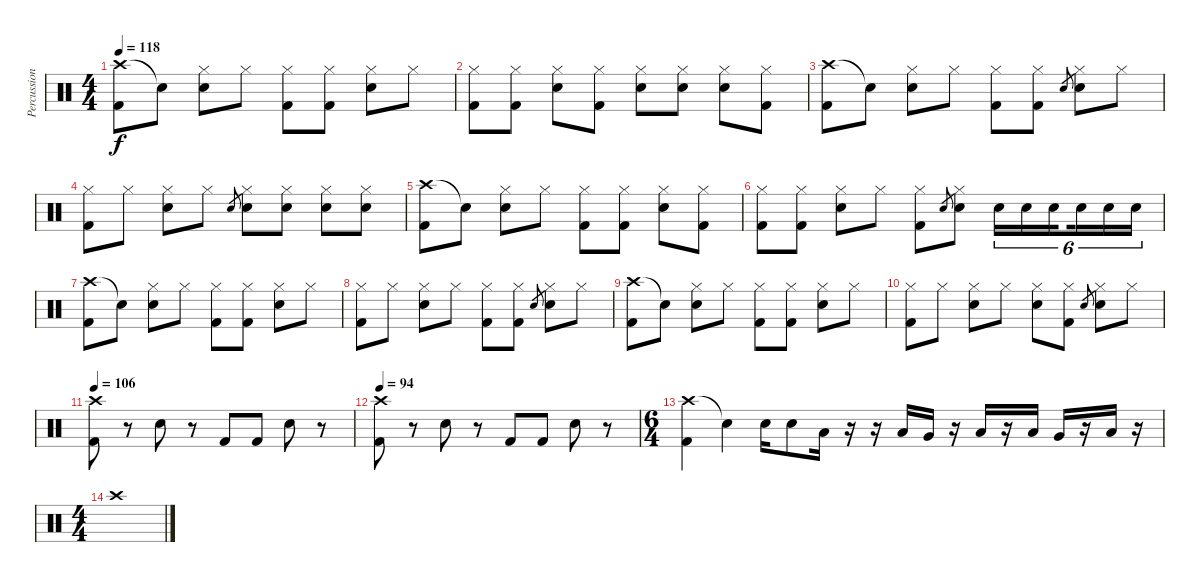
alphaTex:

\track ("Percussion" "Percussion") {instrument percussion}
\staff {score}
\articulation defaults
\ts (4 4)
\tempo 118
\clef neutral
\ks c
("Crash high (hit)" "Kick (hit) 2").8{dy f} "Snare (hit)"{t}.8 ("Hi-Hat (closed)" "Snare (hit) 2").8 "Hi-Hat (closed)".8 ("Hi-Hat (closed)" "Kick (hit) 2").8 ("Hi-Hat (closed)" "Kick (hit) 2").8 ("Hi-Hat (closed)" "Snare (hit) 2").8 "Hi-Hat (closed)".8 |
("Hi-Hat (closed)" "Kick (hit) 2").8 ("Hi-Hat (closed)" "Kick (hit) 2").8 ("Hi-Hat (closed)" "Snare (hit) 2").8 ("Hi-Hat (closed)" "Kick (hit) 2").8 ("Hi-Hat (closed)" "Snare (hit) 2").8 ("Hi-Hat (closed)" "Snare (hit) 2").8 ("Hi-Hat (closed)" "Snare (hit) 2").8 ("Hi-Hat (closed)" "Kick (hit) 2").8 |
("Crash high (hit)" "Kick (hit) 2").8 "Snare (hit)"{t}.8 ("Hi-Hat (closed)" "Snare (hit) 2").8 "Hi-Hat (closed)".8 ("Hi-Hat (closed)" "Kick (hit) 2").8 ("Hi-Hat (closed)" "Kick (hit) 2").8 "Snare (hit) 2".8{gr} ("Hi-Hat (closed)" "Snare (hit) 2").8 "Hi-Hat (closed)".8 |
("Hi-Hat (closed)" "Kick (hit) 2").8 "Hi-Hat (closed)".8 ("Hi-Hat (closed)" "Snare (hit) 2").8 "Hi-Hat (closed)".8 "Snare (hit) 2".8{gr} ("Hi-Hat (closed)" "Snare (hit) 2").8 ("Hi-Hat (closed)" "Snare (hit) 2").8 ("Hi-Hat (closed)" "Snare (hit) 2").8 ("Hi-Hat (closed)" "Snare (hit) 2").8 |
("Crash high (hit)" "Kick (hit) 2").8 "Snare (hit)"{t}.8 ("Hi-Hat (closed)" "Snare (hit) 2").8 "Hi-Hat (closed)".8 ("Hi-Hat (closed)" "Kick (hit) 2").8 ("Hi-Hat (closed)" "Kick (hit) 2").8 ("Hi-Hat (closed)" "Snare (hit) 2").8 ("Hi-Hat (closed)" "Kick (hit) 2").8 |
("Hi-Hat (closed)" "Kick (hit) 2").8 ("Hi-Hat (closed)" "Kick (hit) 2").8 ("Hi-Hat (closed)" "Snare (hit) 2").8 "Hi-Hat (closed)".8 ("Hi-Hat (closed)" "Kick (hit) 2").8 "Snare (hit) 2".8{gr} ("Hi-Hat (closed)" "Snare (hit) 2").8 "Snare (hit) 2".16{tu (6 4)} "Snare (hit) 2".16{tu (6 4)} "Snare (hit) 2".16{tu (6 4) beam splitsecondary} "Snare (hit) 2".16{tu (6 4)} "Snare (hit) 2".16{tu (6 4)} "Snare (hit) 2".16{tu (6 4)} |
("Crash high (hit)" "Kick (hit) 2").8 "Snare (hit)"{t}.8 ("Hi-Hat (closed)" "Snare (hit) 2").8 "Hi-Hat (closed)".8 ("Hi-Hat (closed)" "Kick (hit) 2").8 ("Hi-Hat (closed)" "Kick (hit) 2").8 ("Hi-Hat (closed)" "Snare (hit) 2").8 "Hi-Hat (closed)".8 |
("Hi-Hat (closed)" "Kick (hit) 2").8 "Hi-Hat (closed)".8 ("Hi-Hat (closed)" "Snare (hit) 2").8 "Hi-Hat (closed)".8 ("Hi-Hat (closed)" "Kick (hit) 2").8 ("Hi-Hat (closed)" "Kick (hit) 2").8 "Snare (hit) 2".8{gr} ("Hi-Hat (closed)" "Snare (hit) 2").8 "Hi-Hat (closed)".8 |
("Crash high (hit)" "Kick (hit) 2").8 "Snare (hit)"{t}.8 ("Hi-Hat (closed)" "Snare (hit) 2").8 "Hi-Hat (closed)".8 ("Hi-Hat (closed)" "Kick (hit) 2").8 ("Hi-Hat (closed)" "Kick (hit) 2").8 ("Hi-Hat (closed)" "Snare (hit) 2").8 "Hi-Hat (closed)".8 |
("Hi-Hat (closed)" "Kick (hit) 2").8 "Hi-Hat (closed)".8 ("Hi-Hat (closed)" "Snare (hit) 2").8 "Hi-Hat (closed)".8 ("Hi-Hat (closed)" "Snare (hit) 2").8 ("Hi-Hat (closed)" "Kick (hit) 2").8 "Snare (hit) 2".8{gr} ("Hi-Hat (closed)" "Snare (hit) 2").8 "Hi-Hat (closed)".8 |
\tempo 106
("Crash high (hit)" "Kick (hit) 2").8 r.8 "Snare (hit) 2".8 r.8 "Kick (hit) 2".8 "Kick (hit) 2".8 "Snare (hit) 2".8 r.8 |
\tempo 94
("Crash high (hit)" "Kick (hit) 2").8 r.8 "Snare (hit) 2".8 r.8 "Kick (hit) 2".8 "Kick (hit) 2".8 "Snare (hit) 2".8 r.8 |
\ts (6 4)
("Crash high (hit)" "Kick (hit) 2").4 "Snare (hit)"{t}.4 "Snare (hit) 2".16 "Snare (hit) 2".8 "Low Tom (hit)".16 r.16 r.16 "Low Tom (hit)".16 "Very Low Tom (hit)".16 r.16 "Low Floor Tom (hit)".16 r.16 "Low Tom (hit)".16 "Very Low Tom (hit)".16 r.16 "Low Floor Tom (hit)".16 r.16 |
\ts (4 4)
"Crash high (hit)".1
